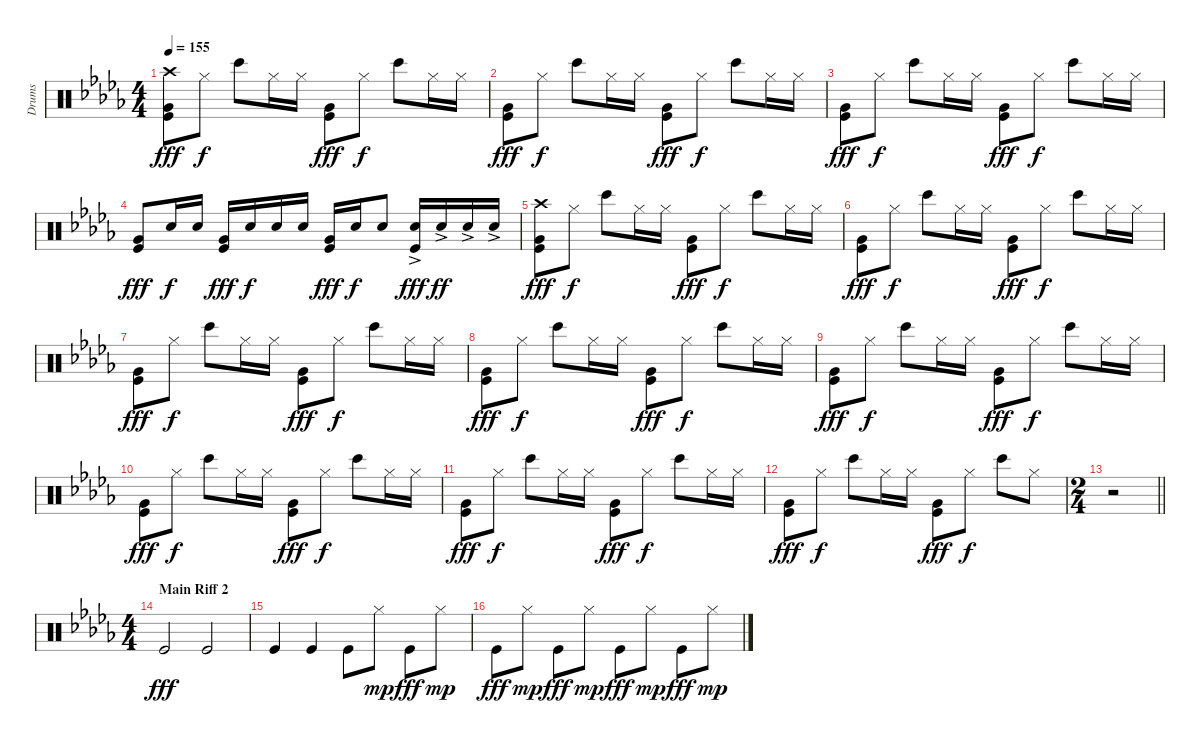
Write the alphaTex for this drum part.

\track ("Drums" "Drums") {instrument percussion bank 25}
\staff {score}
\articulation defaults
\ts (4 4)
\tempo 155
\clef neutral
\ks bbminor
("Crash high (hit)" "Very Low Tom (hit)" "Kick (hit)").8{dy fff} "Hi-Hat (closed)".8{dy f} "Bongo High (hit)".8 "Hi-Hat (closed)".16 "Hi-Hat (closed)".16 ("Very Low Tom (hit)" "Kick (hit)").8{dy fff} "Hi-Hat (closed)".8{dy f} "Bongo High (hit)".8 "Hi-Hat (closed)".16 "Hi-Hat (closed)".16 |
("Very Low Tom (hit)" "Kick (hit)").8{dy fff} "Hi-Hat (closed)".8{dy f} "Bongo High (hit)".8 "Hi-Hat (closed)".16 "Hi-Hat (closed)".16 ("Very Low Tom (hit)" "Kick (hit)").8{dy fff} "Hi-Hat (closed)".8{dy f} "Bongo High (hit)".8 "Hi-Hat (closed)".16 "Hi-Hat (closed)".16 |
("Very Low Tom (hit)" "Kick (hit)").8{dy fff} "Hi-Hat (closed)".8{dy f} "Bongo High (hit)".8 "Hi-Hat (closed)".16 "Hi-Hat (closed)".16 ("Very Low Tom (hit)" "Kick (hit)").8{dy fff} "Hi-Hat (closed)".8{dy f} "Bongo High (hit)".8 "Hi-Hat (closed)".16 "Hi-Hat (closed)".16 |
("Very Low Tom (hit)" "Kick (hit)").8{dy fff} "Snare (hit) 2".16{dy f} "Snare (hit) 2".16 ("Very Low Tom (hit)" "Kick (hit)").16{dy fff} "Snare (hit) 2".16{dy f} "Snare (hit) 2".16 "Snare (hit) 2".16 ("Very Low Tom (hit)" "Kick (hit)").16{dy fff} "Snare (hit) 2".16{dy f} "Snare (hit) 2".8 ("Snare (hit) 2"{ac} "Kick (hit)").16{dy fff} "Snare (hit) 2"{ac}.16{dy ff} "Snare (hit) 2"{ac}.16 "Snare (hit) 2"{ac}.16 |
("Crash high (hit)" "Very Low Tom (hit)" "Kick (hit)").8{dy fff} "Hi-Hat (closed)".8{dy f} "Bongo High (hit)".8 "Hi-Hat (closed)".16 "Hi-Hat (closed)".16 ("Very Low Tom (hit)" "Kick (hit)").8{dy fff} "Hi-Hat (closed)".8{dy f} "Bongo High (hit)".8 "Hi-Hat (closed)".16 "Hi-Hat (closed)".16 |
("Very Low Tom (hit)" "Kick (hit)").8{dy fff} "Hi-Hat (closed)".8{dy f} "Bongo High (hit)".8 "Hi-Hat (closed)".16 "Hi-Hat (closed)".16 ("Very Low Tom (hit)" "Kick (hit)").8{dy fff} "Hi-Hat (closed)".8{dy f} "Bongo High (hit)".8 "Hi-Hat (closed)".16 "Hi-Hat (closed)".16 |
("Very Low Tom (hit)" "Kick (hit)").8{dy fff} "Hi-Hat (closed)".8{dy f} "Bongo High (hit)".8 "Hi-Hat (closed)".16 "Hi-Hat (closed)".16 ("Very Low Tom (hit)" "Kick (hit)").8{dy fff} "Hi-Hat (closed)".8{dy f} "Bongo High (hit)".8 "Hi-Hat (closed)".16 "Hi-Hat (closed)".16 |
("Very Low Tom (hit)" "Kick (hit)").8{dy fff} "Hi-Hat (closed)".8{dy f} "Bongo High (hit)".8 "Hi-Hat (closed)".16 "Hi-Hat (closed)".16 ("Very Low Tom (hit)" "Kick (hit)").8{dy fff} "Hi-Hat (closed)".8{dy f} "Bongo High (hit)".8 "Hi-Hat (closed)".16 "Hi-Hat (closed)".16 |
("Very Low Tom (hit)" "Kick (hit)").8{dy fff} "Hi-Hat (closed)".8{dy f} "Bongo High (hit)".8 "Hi-Hat (closed)".16 "Hi-Hat (closed)".16 ("Very Low Tom (hit)" "Kick (hit)").8{dy fff} "Hi-Hat (closed)".8{dy f} "Bongo High (hit)".8 "Hi-Hat (closed)".16 "Hi-Hat (closed)".16 |
("Very Low Tom (hit)" "Kick (hit)").8{dy fff} "Hi-Hat (closed)".8{dy f} "Bongo High (hit)".8 "Hi-Hat (closed)".16 "Hi-Hat (closed)".16 ("Very Low Tom (hit)" "Kick (hit)").8{dy fff} "Hi-Hat (closed)".8{dy f} "Bongo High (hit)".8 "Hi-Hat (closed)".16 "Hi-Hat (closed)".16 |
("Very Low Tom (hit)" "Kick (hit)").8{dy fff} "Hi-Hat (closed)".8{dy f} "Bongo High (hit)".8 "Hi-Hat (closed)".16 "Hi-Hat (closed)".16 ("Very Low Tom (hit)" "Kick (hit)").8{dy fff} "Hi-Hat (closed)".8{dy f} "Bongo High (hit)".8 "Hi-Hat (closed)".16 "Hi-Hat (closed)".16 |
("Very Low Tom (hit)" "Kick (hit)").8{dy fff} "Hi-Hat (closed)".8{dy f} "Bongo High (hit)".8 "Hi-Hat (closed)".16 "Hi-Hat (closed)".16 ("Very Low Tom (hit)" "Kick (hit)").8{dy fff} "Hi-Hat (closed)".8{dy f} "Bongo High (hit)".8 "Hi-Hat (closed)".8 |
\ts (2 4)
\barLineRight lightlight
r.2 |
\ts (4 4)
\section ("" "Main Riff 2")
"Kick (hit)".2{dy fff} "Kick (hit)".2 |
"Kick (hit)".4 "Kick (hit)".4 "Kick (hit)".8 "Hi-Hat (closed)".8{dy mp} "Kick (hit)".8{dy fff} "Hi-Hat (closed)".8{dy mp} |
"Kick (hit)".8{dy fff} "Hi-Hat (closed)".8{dy mp} "Kick (hit)".8{dy fff} "Hi-Hat (closed)".8{dy mp} "Kick (hit)".8{dy fff} "Hi-Hat (closed)".8{dy mp} "Kick (hit)".8{dy fff} "Hi-Hat (closed)".8{dy mp}
